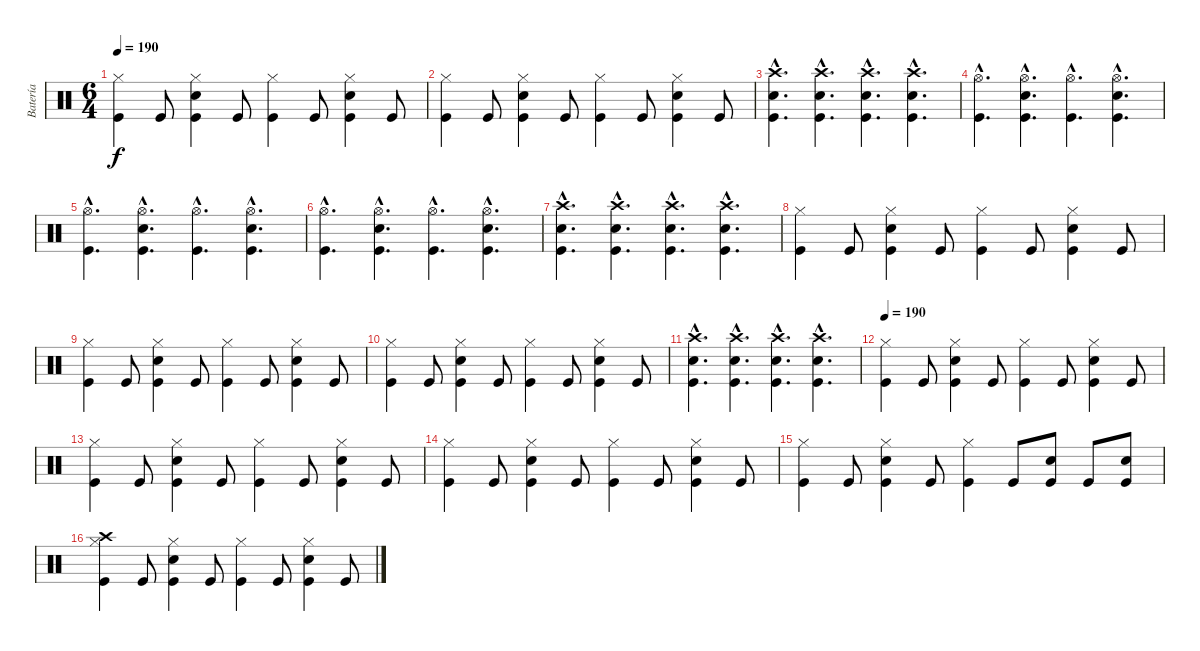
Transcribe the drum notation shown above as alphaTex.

\track ("Batería" "Batería") {instrument percussion}
\staff {score}
\articulation defaults
\ts (6 4)
\tempo 190
\clef neutral
\ks c
("Hi-Hat (closed)" "Kick (hit)").4{dy f} "Kick (hit)".8 ("Kick (hit)" "Hi-Hat (closed)" "Snare (hit) 2").4 "Kick (hit)".8 ("Hi-Hat (closed)" "Kick (hit)").4 "Kick (hit)".8 ("Kick (hit)" "Hi-Hat (closed)" "Snare (hit) 2").4 "Kick (hit)".8 |
("Hi-Hat (closed)" "Kick (hit)").4 "Kick (hit)".8 ("Kick (hit)" "Hi-Hat (closed)" "Snare (hit) 2").4 "Kick (hit)".8 ("Hi-Hat (closed)" "Kick (hit)").4 "Kick (hit)".8 ("Kick (hit)" "Hi-Hat (closed)" "Snare (hit) 2").4 "Kick (hit)".8 |
("Crash high (hit)"{hac} "Kick (hit)"{hac} "Snare (hit) 2"{hac}).4{d} ("Crash high (hit)"{hac} "Kick (hit)"{hac} "Snare (hit) 2"{hac}).4{d} ("Crash high (hit)"{hac} "Kick (hit)"{hac} "Snare (hit) 2"{hac}).4{d} ("Crash high (hit)"{hac} "Kick (hit)"{hac} "Snare (hit) 2"{hac}).4{d} |
("Hi-Hat (open)"{hac} "Kick (hit)"{hac}).4{d} ("Kick (hit)"{hac} "Hi-Hat (open)"{hac} "Snare (hit) 2"{hac}).4{d} ("Hi-Hat (open)"{hac} "Kick (hit)"{hac}).4{d} ("Kick (hit)"{hac} "Hi-Hat (open)"{hac} "Snare (hit) 2"{hac}).4{d} |
("Hi-Hat (open)"{hac} "Kick (hit)"{hac}).4{d} ("Kick (hit)"{hac} "Hi-Hat (open)"{hac} "Snare (hit) 2"{hac}).4{d} ("Hi-Hat (open)"{hac} "Kick (hit)"{hac}).4{d} ("Kick (hit)"{hac} "Hi-Hat (open)"{hac} "Snare (hit) 2"{hac}).4{d} |
("Hi-Hat (open)"{hac} "Kick (hit)"{hac}).4{d} ("Kick (hit)"{hac} "Hi-Hat (open)"{hac} "Snare (hit) 2"{hac}).4{d} ("Hi-Hat (open)"{hac} "Kick (hit)"{hac}).4{d} ("Kick (hit)"{hac} "Hi-Hat (open)"{hac} "Snare (hit) 2"{hac}).4{d} |
("Crash high (hit)"{hac} "Kick (hit)"{hac} "Snare (hit) 2"{hac}).4{d} ("Crash high (hit)"{hac} "Kick (hit)"{hac} "Snare (hit) 2"{hac}).4{d} ("Crash high (hit)"{hac} "Kick (hit)"{hac} "Snare (hit) 2"{hac}).4{d} ("Crash high (hit)"{hac} "Kick (hit)"{hac} "Snare (hit) 2"{hac}).4{d} |
("Hi-Hat (closed)" "Kick (hit)").4 "Kick (hit)".8 ("Kick (hit)" "Hi-Hat (closed)" "Snare (hit) 2").4 "Kick (hit)".8 ("Hi-Hat (closed)" "Kick (hit)").4 "Kick (hit)".8 ("Kick (hit)" "Hi-Hat (closed)" "Snare (hit) 2").4 "Kick (hit)".8 |
("Hi-Hat (closed)" "Kick (hit)").4 "Kick (hit)".8 ("Kick (hit)" "Hi-Hat (closed)" "Snare (hit) 2").4 "Kick (hit)".8 ("Hi-Hat (closed)" "Kick (hit)").4 "Kick (hit)".8 ("Kick (hit)" "Hi-Hat (closed)" "Snare (hit) 2").4 "Kick (hit)".8 |
("Hi-Hat (closed)" "Kick (hit)").4 "Kick (hit)".8 ("Kick (hit)" "Hi-Hat (closed)" "Snare (hit) 2").4 "Kick (hit)".8 ("Hi-Hat (closed)" "Kick (hit)").4 "Kick (hit)".8 ("Kick (hit)" "Hi-Hat (closed)" "Snare (hit) 2").4 "Kick (hit)".8 |
("Crash high (hit)"{hac} "Kick (hit)"{hac} "Snare (hit) 2"{hac}).4{d} ("Crash high (hit)"{hac} "Kick (hit)"{hac} "Snare (hit) 2"{hac}).4{d} ("Crash high (hit)"{hac} "Kick (hit)"{hac} "Snare (hit) 2"{hac}).4{d} ("Crash high (hit)"{hac} "Kick (hit)"{hac} "Snare (hit) 2"{hac}).4{d} |
\tempo 185
\tempo 190
("Hi-Hat (closed)" "Kick (hit)").4 "Kick (hit)".8 ("Kick (hit)" "Hi-Hat (closed)" "Snare (hit) 2").4 "Kick (hit)".8 ("Hi-Hat (closed)" "Kick (hit)").4 "Kick (hit)".8 ("Kick (hit)" "Hi-Hat (closed)" "Snare (hit) 2").4 "Kick (hit)".8 |
("Hi-Hat (closed)" "Kick (hit)").4 "Kick (hit)".8 ("Kick (hit)" "Hi-Hat (closed)" "Snare (hit) 2").4 "Kick (hit)".8 ("Hi-Hat (closed)" "Kick (hit)").4 "Kick (hit)".8 ("Kick (hit)" "Hi-Hat (closed)" "Snare (hit) 2").4 "Kick (hit)".8 |
("Hi-Hat (closed)" "Kick (hit)").4 "Kick (hit)".8 ("Kick (hit)" "Hi-Hat (closed)" "Snare (hit) 2").4 "Kick (hit)".8 ("Hi-Hat (closed)" "Kick (hit)").4 "Kick (hit)".8 ("Kick (hit)" "Hi-Hat (closed)" "Snare (hit) 2").4 "Kick (hit)".8 |
("Hi-Hat (closed)" "Kick (hit)").4 "Kick (hit)".8 ("Kick (hit)" "Hi-Hat (closed)" "Snare (hit) 2").4 "Kick (hit)".8 ("Hi-Hat (closed)" "Kick (hit)").4 "Kick (hit)".8 ("Kick (hit)" "Snare (hit) 2").8 "Kick (hit)".8 ("Kick (hit)" "Snare (hit) 2").8 |
("Crash high (hit)" "Hi-Hat (closed)" "Kick (hit)").4 "Kick (hit)".8 ("Kick (hit)" "Hi-Hat (closed)" "Snare (hit) 2").4 "Kick (hit)".8 ("Hi-Hat (closed)" "Kick (hit)").4 "Kick (hit)".8 ("Kick (hit)" "Hi-Hat (closed)" "Snare (hit) 2").4 "Kick (hit)".8
